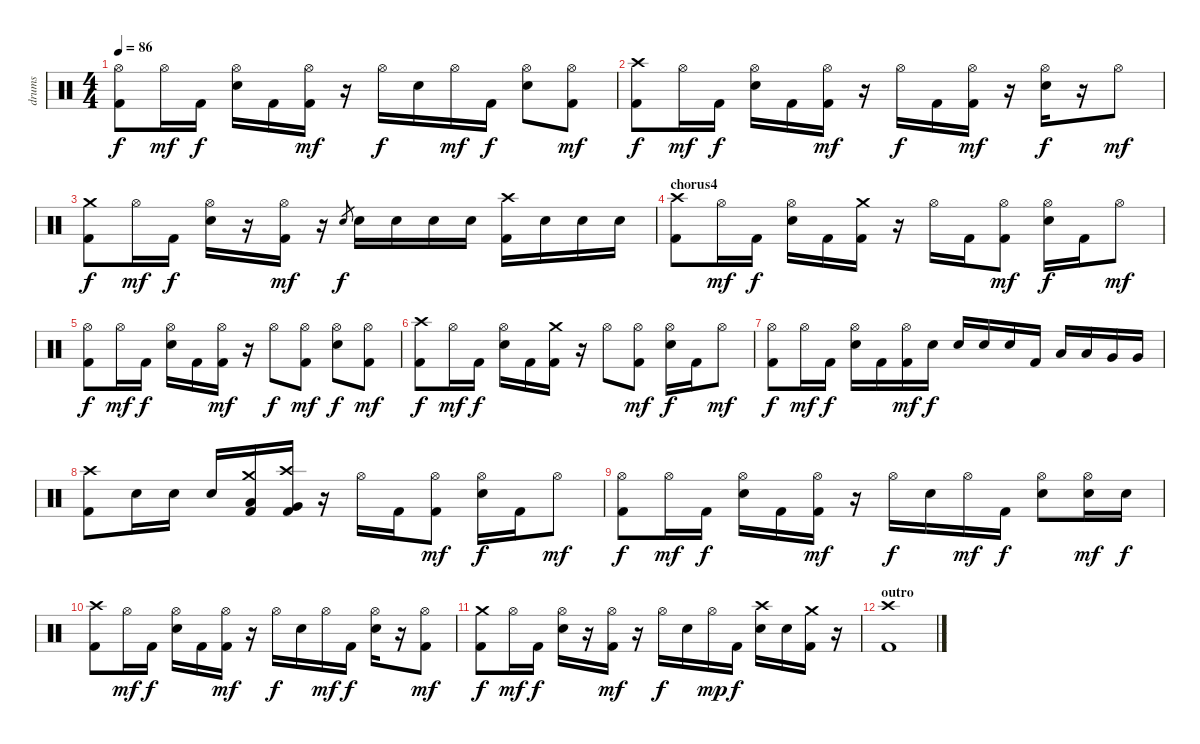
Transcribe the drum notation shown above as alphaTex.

\track ("drums" "drums") {instrument percussion}
\staff {score}
\articulation defaults
\ts (4 4)
\tempo 86
\clef neutral
\ks c
("Kick (hit) 2" "Hi-Hat (open)").8{dy f} "Hi-Hat (open)".16{dy mf} "Kick (hit) 2".16{dy f} ("Electric Snare (hit)" "Hi-Hat (open)").16 "Kick (hit) 2".16 ("Kick (hit) 2" "Hi-Hat (open)").16{dy mf} r.16 "Hi-Hat (open)".16{dy f} "Electric Snare (hit)".16 "Hi-Hat (open)".16{dy mf} "Kick (hit) 2".16{dy f} ("Electric Snare (hit)" "Hi-Hat (open)").8 ("Kick (hit) 2" "Hi-Hat (open)").8{dy mf} |
("Kick (hit) 2" "Crash high (hit)").8{dy f} "Hi-Hat (open)".16{dy mf} "Kick (hit) 2".16{dy f} ("Electric Snare (hit)" "Hi-Hat (open)").16 "Kick (hit) 2".16 ("Kick (hit) 2" "Hi-Hat (open)").16{dy mf} r.16 "Hi-Hat (open)".16{dy f} "Kick (hit) 2".16 ("Kick (hit) 2" "Hi-Hat (open)").16{dy mf} r.16 ("Electric Snare (hit)" "Hi-Hat (open)").16{dy f} r.16 "Hi-Hat (open)".8{dy mf} |
("Kick (hit) 2" "Crash medium (hit)").8{dy f} "Hi-Hat (open)".16{dy mf} "Kick (hit) 2".16{dy f} ("Electric Snare (hit)" "Hi-Hat (open)").16 r.16 ("Kick (hit) 2" "Hi-Hat (open)").16{dy mf} r.16 "Electric Snare (hit)".8{gr dy f} "Electric Snare (hit)".16 "Electric Snare (hit)".16 "Electric Snare (hit)".16 "Electric Snare (hit)".16 ("Kick (hit) 2" "Crash high (hit)").16 "Electric Snare (hit)".16 "Electric Snare (hit)".16 "Electric Snare (hit)".16 |
\section ("" "chorus4")
("Kick (hit) 2" "Crash high (hit)").8 "Hi-Hat (open)".16{dy mf} "Kick (hit) 2".16{dy f} ("Electric Snare (hit)" "Hi-Hat (open)").16 "Kick (hit) 2".16 ("Kick (hit) 2" "Crash medium (hit)").16 r.16 "Hi-Hat (open)".16 "Kick (hit) 2".16 ("Kick (hit) 2" "Hi-Hat (open)").8{dy mf} ("Electric Snare (hit)" "Hi-Hat (open)").16{dy f} "Kick (hit) 2".16 "Hi-Hat (open)".8{dy mf} |
("Kick (hit) 2" "Hi-Hat (open)").8{dy f} "Hi-Hat (open)".16{dy mf} "Kick (hit) 2".16{dy f} ("Electric Snare (hit)" "Hi-Hat (open)").16 "Kick (hit) 2".16 ("Kick (hit) 2" "Hi-Hat (open)").16{dy mf} r.16 "Hi-Hat (open)".8{dy f} ("Kick (hit) 2" "Hi-Hat (open)").8{dy mf} ("Electric Snare (hit)" "Hi-Hat (open)").8{dy f} ("Kick (hit) 2" "Hi-Hat (open)").8{dy mf} |
("Kick (hit) 2" "Crash high (hit)").8{dy f} "Hi-Hat (open)".16{dy mf} "Kick (hit) 2".16{dy f} ("Electric Snare (hit)" "Hi-Hat (open)").16 "Kick (hit) 2".16 ("Kick (hit) 2" "Crash medium (hit)").16 r.16 "Hi-Hat (open)".8 ("Kick (hit) 2" "Hi-Hat (open)").8{dy mf} ("Electric Snare (hit)" "Hi-Hat (open)").16{dy f} "Kick (hit) 2".16 "Hi-Hat (open)".8{dy mf} |
("Kick (hit) 2" "Hi-Hat (open)").8{dy f} "Hi-Hat (open)".16{dy mf} "Kick (hit) 2".16{dy f} ("Electric Snare (hit)" "Hi-Hat (open)").16 "Kick (hit) 2".16 ("Kick (hit) 2" "Hi-Hat (open)").16{dy mf} "Electric Snare (hit)".16{dy f} "Electric Snare (hit)".16 "Electric Snare (hit)".16 "Electric Snare (hit)".16 "Kick (hit) 2".16 "Low Tom (hit)".16 "Low Tom (hit)".16 "Very Low Tom (hit)".16 "Very Low Tom (hit)".16 |
("Kick (hit) 2" "Crash high (hit)").8 "Electric Snare (hit)".16 "Electric Snare (hit)".16 "Electric Snare (hit)".16 ("Kick (hit) 2" "Low Tom (hit)" "Crash medium (hit)").16 ("Kick (hit) 2" "Very Low Tom (hit)" "Crash high (hit)").16 r.16 "Hi-Hat (open)".16 "Kick (hit) 2".16 ("Kick (hit) 2" "Hi-Hat (open)").8{dy mf} ("Electric Snare (hit)" "Hi-Hat (open)").16{dy f} "Kick (hit) 2".16 "Hi-Hat (open)".8{dy mf} |
("Kick (hit) 2" "Hi-Hat (open)").8{dy f} "Hi-Hat (open)".16{dy mf} "Kick (hit) 2".16{dy f} ("Electric Snare (hit)" "Hi-Hat (open)").16 "Kick (hit) 2".16 ("Kick (hit) 2" "Hi-Hat (open)").16{dy mf} r.16 "Hi-Hat (open)".16{dy f} "Electric Snare (hit)".16 "Hi-Hat (open)".16{dy mf} "Kick (hit) 2".16{dy f} ("Electric Snare (hit)" "Hi-Hat (open)").8 ("Electric Snare (hit)" "Hi-Hat (open)").16{dy mf} "Electric Snare (hit)".16{dy f} |
("Kick (hit) 2" "Crash high (hit)").8 "Hi-Hat (open)".16{dy mf} "Kick (hit) 2".16{dy f} ("Electric Snare (hit)" "Hi-Hat (open)").16 "Kick (hit) 2".16 ("Kick (hit) 2" "Hi-Hat (open)").16{dy mf} r.16 "Hi-Hat (open)".16{dy f} "Electric Snare (hit)".16 "Hi-Hat (open)".16{dy mf} "Kick (hit) 2".16{dy f} ("Electric Snare (hit)" "Hi-Hat (open)").16 r.16 ("Kick (hit) 2" "Hi-Hat (open)").8{dy mf} |
("Kick (hit) 2" "Crash medium (hit)").8{dy f} "Hi-Hat (open)".16{dy mf} "Kick (hit) 2".16{dy f} ("Electric Snare (hit)" "Hi-Hat (open)").16 r.16 ("Kick (hit) 2" "Hi-Hat (open)").16{dy mf} r.16 "Hi-Hat (open)".16{dy f} "Electric Snare (hit)".16 "Hi-Hat (open)".16{dy mp} "Kick (hit) 2".16{dy f} ("Electric Snare (hit)" "Crash high (hit)").16 "Electric Snare (hit)".16 ("Kick (hit) 2" "Crash medium (hit)").16 r.16 |
\section ("" "outro")
("Kick (hit) 2" "Crash high (hit)").1
